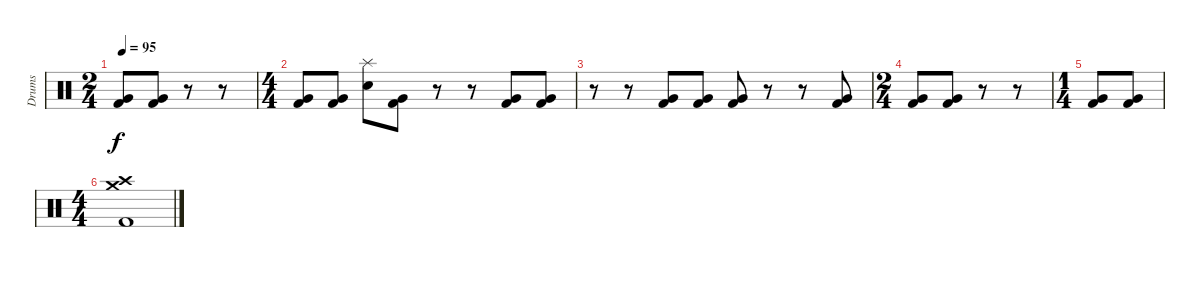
\track ("Drums" "Drums") {instrument percussion}
\staff {score}
\articulation defaults
\ts (2 4)
\tempo 95
\clef neutral
\ks c
("Very Low Tom (hit)" "Kick (hit) 2").8{dy f} ("Very Low Tom (hit)" "Kick (hit) 2").8 r.8 r.8 |
\ts (4 4)
("Kick (hit) 2" "Very Low Tom (hit)").8 ("Kick (hit) 2" "Very Low Tom (hit)").8 ("Splash (hit)" "Electric Snare (hit)").8 ("Kick (hit) 2" "Very Low Tom (hit)").8 r.8 r.8 ("Very Low Tom (hit)" "Kick (hit) 2").8 ("Very Low Tom (hit)" "Kick (hit) 2").8 |
r.8 r.8 ("Very Low Tom (hit)" "Kick (hit) 2").8 ("Very Low Tom (hit)" "Kick (hit) 2").8 ("Very Low Tom (hit)" "Kick (hit) 2").8 r.8 r.8 ("Very Low Tom (hit)" "Kick (hit) 2").8 |
\ts (2 4)
("Very Low Tom (hit)" "Kick (hit) 2").8 ("Very Low Tom (hit)" "Kick (hit) 2").8 r.8 r.8 |
\ts (1 4)
("Very Low Tom (hit)" "Kick (hit) 2").8 ("Very Low Tom (hit)" "Kick (hit) 2").8 |
\ts (4 4)
("Crash high (hit)" "Crash medium (hit)" "Kick (hit) 2").1
